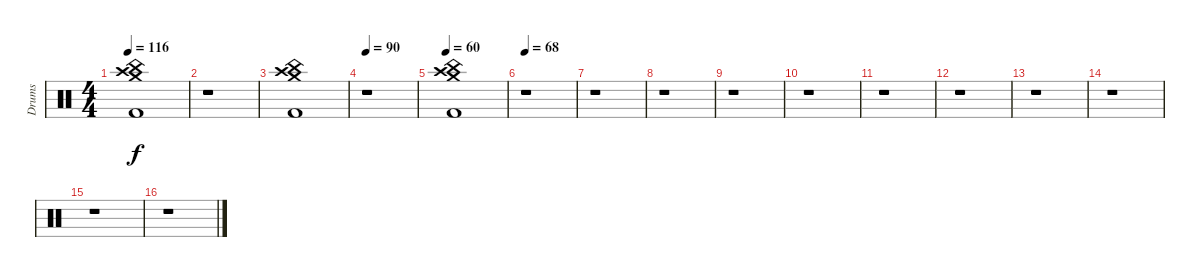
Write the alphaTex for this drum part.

\track ("Drums" "Drums") {instrument percussion}
\staff {score}
\articulation defaults
\ts (4 4)
\tempo 116
\clef neutral
\ks c
("Crash medium (hit)" "Crash high (hit)" "China (hit)" "Kick (hit) 2").1{dy f} |
r.1 |
("Crash medium (hit)" "Crash high (hit)" "China (hit)" "Kick (hit) 2").1 |
\tempo 90
r.1 |
\tempo 60
("Crash medium (hit)" "Crash high (hit)" "China (hit)" "Kick (hit) 2").1 |
\tempo 68
r.1 |
r.1 |
r.1 |
r.1 |
r.1 |
r.1 |
r.1 |
r.1 |
r.1 |
r.1 |
r.1
